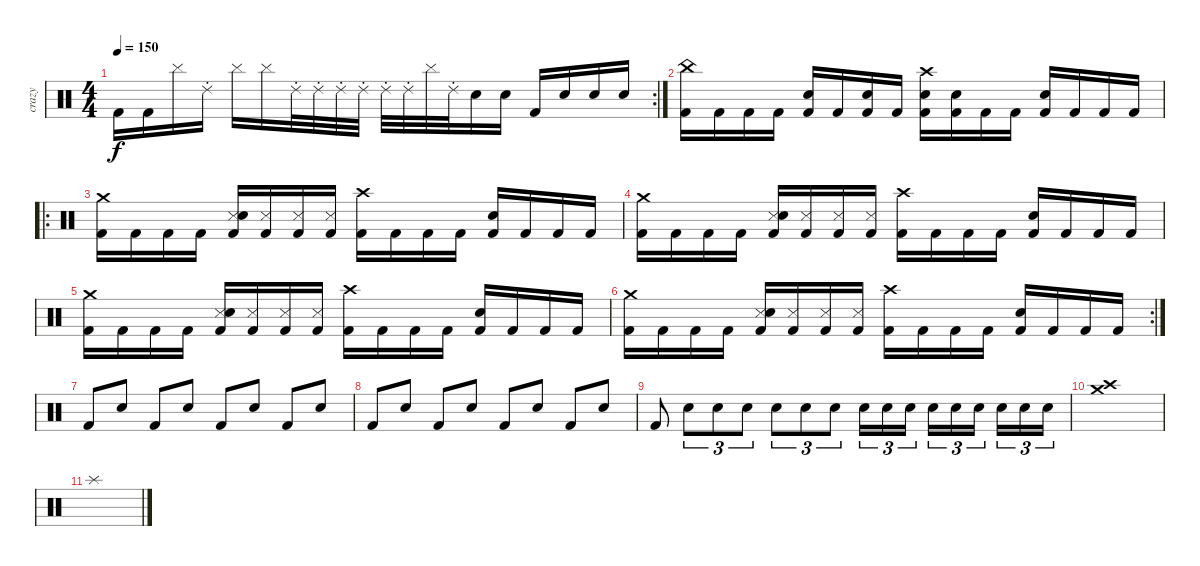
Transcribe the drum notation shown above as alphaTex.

\track ("crazy" "crazy") {instrument percussion}
\staff {score}
\articulation defaults
\rc 2
\ts (4 4)
\tempo 150
\clef neutral
\ks c "Kick (hit) 2".16{dy f} "Kick (hit) 2".16 "Cymbal (hit)".16 "Ride (choke) 2".16 "Cymbal (hit)".16 "Cymbal (hit)".16 "Ride (choke) 2".32 "Ride (choke) 2".32 "Ride (choke) 2".32 "Ride (choke) 2".32 "Ride (choke) 2".32 "Ride (choke) 2".32 "Cymbal (hit)".32 "Ride (choke) 2".32 "Electric Snare (hit)".16 "Electric Snare (hit)".16 "Kick (hit) 2".16 "Electric Snare (hit)".16 "Electric Snare (hit)".16 "Electric Snare (hit)".16
|
("China (hit)" "Kick (hit) 2").16 "Kick (hit) 2".16 "Kick (hit) 2".16 "Kick (hit) 2".16 ("Electric Snare (hit)" "Kick (hit) 2").16 "Kick (hit) 2".16 ("Electric Snare (hit)" "Kick (hit) 2").16 "Kick (hit) 2".16 ("Crash high (hit)" "Electric Snare (hit)" "Kick (hit) 2").16 ("Electric Snare (hit)" "Kick (hit) 2").16 "Kick (hit) 2".16 "Kick (hit) 2".16 ("Electric Snare (hit)" "Kick (hit) 2").16 "Kick (hit) 2".16 "Kick (hit) 2".16 "Kick (hit) 2".16 |
\ro
("Crash medium (hit)" "Kick (hit) 2").16 "Kick (hit) 2".16 "Kick (hit) 2".16 "Kick (hit) 2".16 ("Metronome (hit)" "Electric Snare (hit)" "Kick (hit) 2").16 ("Metronome (hit)" "Kick (hit) 2").16 ("Metronome (hit)" "Kick (hit) 2").16 ("Metronome (hit)" "Kick (hit) 2").16 ("Crash high (hit)" "Kick (hit) 2").16 "Kick (hit) 2".16 "Kick (hit) 2".16 "Kick (hit) 2".16 ("Electric Snare (hit)" "Kick (hit) 2").16 "Kick (hit) 2".16 "Kick (hit) 2".16 "Kick (hit) 2".16 |
("Crash medium (hit)" "Kick (hit) 2").16 "Kick (hit) 2".16 "Kick (hit) 2".16 "Kick (hit) 2".16 ("Metronome (hit)" "Electric Snare (hit)" "Kick (hit) 2").16 ("Metronome (hit)" "Kick (hit) 2").16 ("Metronome (hit)" "Kick (hit) 2").16 ("Metronome (hit)" "Kick (hit) 2").16 ("Crash high (hit)" "Kick (hit) 2").16 "Kick (hit) 2".16 "Kick (hit) 2".16 "Kick (hit) 2".16 ("Electric Snare (hit)" "Kick (hit) 2").16 "Kick (hit) 2".16 "Kick (hit) 2".16 "Kick (hit) 2".16 |
("Crash medium (hit)" "Kick (hit) 2").16 "Kick (hit) 2".16 "Kick (hit) 2".16 "Kick (hit) 2".16 ("Metronome (hit)" "Electric Snare (hit)" "Kick (hit) 2").16 ("Metronome (hit)" "Kick (hit) 2").16 ("Metronome (hit)" "Kick (hit) 2").16 ("Metronome (hit)" "Kick (hit) 2").16 ("Crash high (hit)" "Kick (hit) 2").16 "Kick (hit) 2".16 "Kick (hit) 2".16 "Kick (hit) 2".16 ("Electric Snare (hit)" "Kick (hit) 2").16 "Kick (hit) 2".16 "Kick (hit) 2".16 "Kick (hit) 2".16 |
\rc 2
("Crash medium (hit)" "Kick (hit) 2").16 "Kick (hit) 2".16 "Kick (hit) 2".16 "Kick (hit) 2".16 ("Metronome (hit)" "Electric Snare (hit)" "Kick (hit) 2").16 ("Metronome (hit)" "Kick (hit) 2").16 ("Metronome (hit)" "Kick (hit) 2").16 ("Metronome (hit)" "Kick (hit) 2").16 ("Crash high (hit)" "Kick (hit) 2").16 "Kick (hit) 2".16 "Kick (hit) 2".16 "Kick (hit) 2".16 ("Electric Snare (hit)" "Kick (hit) 2").16 "Kick (hit) 2".16 "Kick (hit) 2".16 "Kick (hit) 2".16 |
"Kick (hit) 2".8 "Electric Snare (hit)".8 "Kick (hit) 2".8 "Electric Snare (hit)".8 "Kick (hit) 2".8 "Electric Snare (hit)".8 "Kick (hit) 2".8 "Electric Snare (hit)".8 |
"Kick (hit) 2".8 "Electric Snare (hit)".8 "Kick (hit) 2".8 "Electric Snare (hit)".8 "Kick (hit) 2".8 "Electric Snare (hit)".8 "Kick (hit) 2".8 "Electric Snare (hit)".8 |
"Kick (hit) 2".8 "Electric Snare (hit)".8{tu (3 2)} "Electric Snare (hit)".8{tu (3 2)} "Electric Snare (hit)".8{tu (3 2)} "Electric Snare (hit)".8{tu (3 2)} "Electric Snare (hit)".8{tu (3 2)} "Electric Snare (hit)".8{tu (3 2)} "Electric Snare (hit)".16{tu (3 2)} "Electric Snare (hit)".16{tu (3 2)} "Electric Snare (hit)".16{tu (3 2)} "Electric Snare (hit)".16{tu (3 2)} "Electric Snare (hit)".16{tu (3 2)} "Electric Snare (hit)".16{tu (3 2)} "Electric Snare (hit)".16{tu (3 2)} "Electric Snare (hit)".16{tu (3 2)} "Electric Snare (hit)".16{tu (3 2)} |
("Crash high (hit)" "Crash medium (hit)").1 |
"Splash (hit)".1
